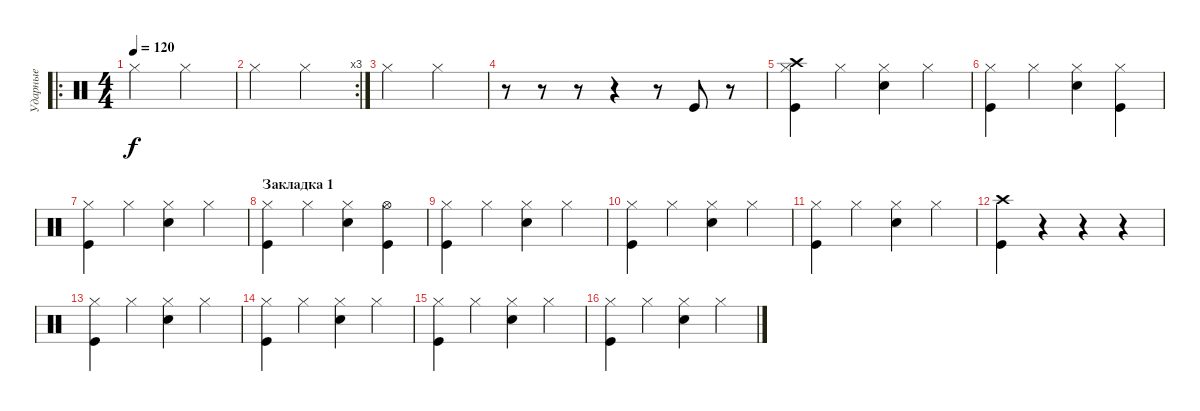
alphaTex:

\track ("Ударные" "Ударные") {instrument percussion}
\staff {score}
\articulation defaults
\ro
\ts (4 4)
\tempo 120
\clef neutral
\ks c "Hi-Hat (closed)".2{dy f} "Hi-Hat (closed)".2
|
\rc 3 "Hi-Hat (closed)".2 "Hi-Hat (closed)".2
|
"Hi-Hat (closed)".2 "Hi-Hat (closed)".2 |
r.8 r.8 r.8 r.4 r.8 "Kick (hit)".8 r.8 |
("Hi-Hat (closed)" "Crash high (hit)" "Kick (hit)").4 "Hi-Hat (closed)".4 ("Hi-Hat (closed)" "Snare (hit) 2").4 "Hi-Hat (closed)".4 |
("Hi-Hat (closed)" "Kick (hit)").4 "Hi-Hat (closed)".4 ("Hi-Hat (closed)" "Snare (hit) 2").4 ("Hi-Hat (closed)" "Kick (hit)").4 |
("Hi-Hat (closed)" "Kick (hit)").4 "Hi-Hat (closed)".4 ("Hi-Hat (closed)" "Snare (hit) 2").4 "Hi-Hat (closed)".4 |
\section ("" "Закладка 1")
("Hi-Hat (closed)" "Kick (hit)").4 "Hi-Hat (closed)".4 ("Hi-Hat (closed)" "Snare (hit) 2").4 ("Hi-Hat (open)" "Kick (hit)").4 |
("Hi-Hat (closed)" "Kick (hit)").4 "Hi-Hat (closed)".4 ("Hi-Hat (closed)" "Snare (hit) 2").4 "Hi-Hat (closed)".4 |
("Hi-Hat (closed)" "Kick (hit)").4 "Hi-Hat (closed)".4 ("Hi-Hat (closed)" "Snare (hit) 2").4 "Hi-Hat (closed)".4 |
("Hi-Hat (closed)" "Kick (hit)").4 "Hi-Hat (closed)".4 ("Hi-Hat (closed)" "Snare (hit) 2").4 "Hi-Hat (closed)".4 |
("Kick (hit)" "Crash high (hit)").4 r.4 r.4 r.4 |
("Hi-Hat (closed)" "Kick (hit)").4 "Hi-Hat (closed)".4 ("Hi-Hat (closed)" "Snare (hit) 2").4 "Hi-Hat (closed)".4 |
("Hi-Hat (closed)" "Kick (hit)").4 "Hi-Hat (closed)".4 ("Hi-Hat (closed)" "Snare (hit) 2").4 "Hi-Hat (closed)".4 |
("Hi-Hat (closed)" "Kick (hit)").4 "Hi-Hat (closed)".4 ("Hi-Hat (closed)" "Snare (hit) 2").4 "Hi-Hat (closed)".4 |
("Hi-Hat (closed)" "Kick (hit)").4 "Hi-Hat (closed)".4 ("Hi-Hat (closed)" "Snare (hit) 2").4 "Hi-Hat (closed)".4
